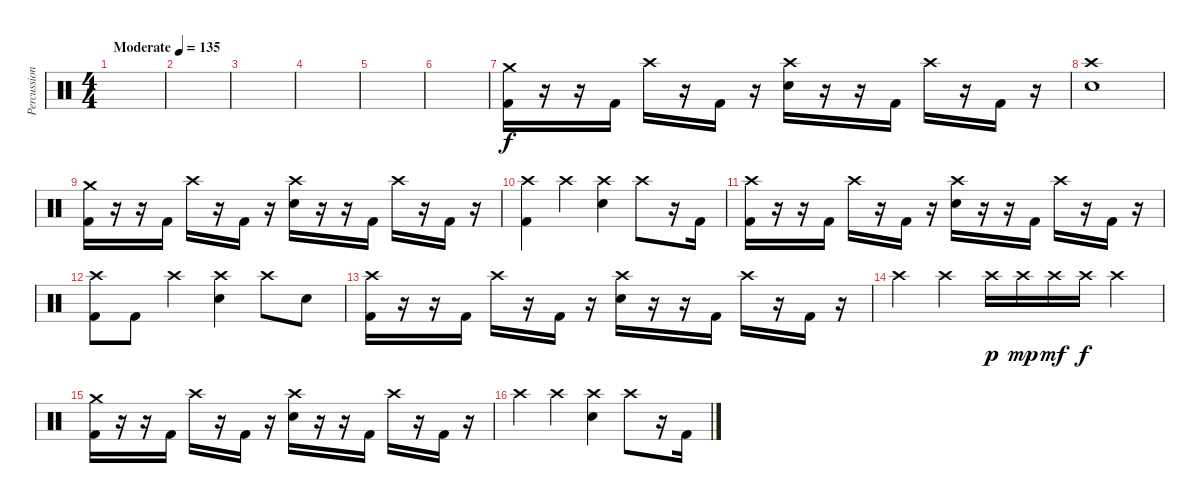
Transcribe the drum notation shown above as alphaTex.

\track ("Percussions" "Percussion") {instrument percussion}
\staff {score}
\articulation defaults
\ts (4 4)
\tempo (135 "Moderate")
\clef neutral
\ks c
|
|
|
|
|
|
("Crash medium (hit)" "Kick (hit) 2").16 r.16 r.16 "Kick (hit) 2".16 "Crash high (hit)".16 r.16 "Kick (hit) 2".16 r.16 ("Crash high (hit)" "Electric Snare (hit)").16 r.16 r.16 "Kick (hit) 2".16 "Crash high (hit)".16 r.16 "Kick (hit) 2".16 r.16 |
("Crash high (hit)" "Electric Snare (hit)").1 |
("Crash medium (hit)" "Kick (hit) 2").16 r.16 r.16 "Kick (hit) 2".16 "Crash high (hit)".16 r.16 "Kick (hit) 2".16 r.16 ("Crash high (hit)" "Electric Snare (hit)").16 r.16 r.16 "Kick (hit) 2".16 "Crash high (hit)".16 r.16 "Kick (hit) 2".16 r.16 |
("Crash high (hit)" "Kick (hit) 2").4 "Crash high (hit)".4 ("Crash high (hit)" "Electric Snare (hit)").4 "Crash high (hit)".8 r.16 "Kick (hit) 2".16 |
("Crash high (hit)" "Kick (hit) 2").16 r.16 r.16 "Kick (hit) 2".16 "Crash high (hit)".16 r.16 "Kick (hit) 2".16 r.16 ("Crash high (hit)" "Electric Snare (hit)").16 r.16 r.16 "Kick (hit) 2".16 "Crash high (hit)".16 r.16 "Kick (hit) 2".16 r.16 |
("Crash high (hit)" "Kick (hit) 2").8 "Kick (hit) 2".8 "Crash high (hit)".4 ("Crash high (hit)" "Electric Snare (hit)").4 "Crash high (hit)".8 "Electric Snare (hit)".8 |
("Crash high (hit)" "Kick (hit) 2").16 r.16 r.16 "Kick (hit) 2".16 "Crash high (hit)".16 r.16 "Kick (hit) 2".16 r.16 ("Crash high (hit)" "Electric Snare (hit)").16 r.16 r.16 "Kick (hit) 2".16 "Crash high (hit)".16 r.16 "Kick (hit) 2".16 r.16 |
"Crash high (hit)".4 "Crash high (hit)".4 "Crash high (hit)".16{dy p} "Crash high (hit)".16{dy mp} "Crash high (hit)".16{dy mf} "Crash high (hit)".16{dy f} "Crash high (hit)".4 |
("Crash medium (hit)" "Kick (hit) 2").16 r.16 r.16 "Kick (hit) 2".16 "Crash high (hit)".16 r.16 "Kick (hit) 2".16 r.16 ("Crash high (hit)" "Electric Snare (hit)").16 r.16 r.16 "Kick (hit) 2".16 "Crash high (hit)".16 r.16 "Kick (hit) 2".16 r.16 |
"Crash high (hit)".4 "Crash high (hit)".4 ("Crash high (hit)" "Electric Snare (hit)").4 "Crash high (hit)".8 r.16 "Kick (hit) 2".16
